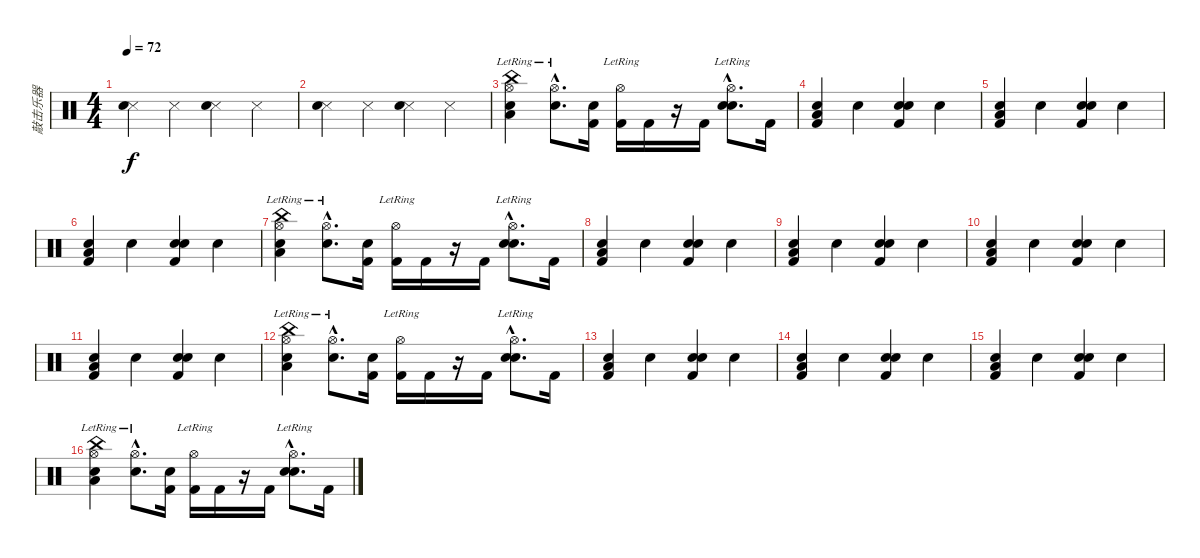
\track ("敲击乐器" "敲击乐器") {instrument percussion}
\staff {score}
\articulation defaults
\ts (4 4)
\tempo 72
\clef neutral
\ks c
("Snare (side stick) 3" "Electric Snare (hit)").4{dy f} "Snare (side stick) 3".4 ("Snare (side stick) 3" "Hand Clap (hit)").4 "Snare (side stick) 3".4 |
("Snare (side stick) 3" "Electric Snare (hit)").4 "Snare (side stick) 3".4 ("Snare (side stick) 3" "Hand Clap (hit)").4 "Snare (side stick) 3".4 |
("China (hit)" "Snare (hit) 2" "Low Floor Tom (hit)" "Hi-Hat (open)"{lr}).4 ("Electric Snare (hit)"{hac} "Hi-Hat (open)"{hac lr}).8{d} ("Kick (hit) 2" "Snare (hit) 2").16 ("Kick (hit) 2" "Hi-Hat (open)"{lr}).16 "Kick (hit) 2".16 r.16 "Kick (hit) 2".16 ("Electric Snare (hit)"{hac} "Hand Clap (hit)"{hac} "Hi-Hat (open)"{hac lr}).8{d} "Kick (hit) 2".16 |
("Snare (hit) 2" "Kick (hit) 2" "Low Floor Tom (hit)").4 "Electric Snare (hit)".4 ("Snare (hit) 2" "Kick (hit) 2" "Hand Clap (hit)").4 "Electric Snare (hit)".4 |
("Snare (hit) 2" "Kick (hit) 2" "Low Floor Tom (hit)").4 "Electric Snare (hit)".4 ("Snare (hit) 2" "Kick (hit) 2" "Hand Clap (hit)").4 "Electric Snare (hit)".4 |
("Snare (hit) 2" "Kick (hit) 2" "Low Floor Tom (hit)").4 "Electric Snare (hit)".4 ("Snare (hit) 2" "Kick (hit) 2" "Hand Clap (hit)").4 "Electric Snare (hit)".4 |
("China (hit)" "Snare (hit) 2" "Low Floor Tom (hit)" "Hi-Hat (open)"{lr}).4 ("Electric Snare (hit)"{hac} "Hi-Hat (open)"{hac lr}).8{d} ("Kick (hit) 2" "Snare (hit) 2").16 ("Kick (hit) 2" "Hi-Hat (open)"{lr}).16 "Kick (hit) 2".16 r.16 "Kick (hit) 2".16 ("Electric Snare (hit)"{hac} "Hand Clap (hit)"{hac} "Hi-Hat (open)"{hac lr}).8{d} "Kick (hit) 2".16 |
("Snare (hit) 2" "Kick (hit) 2" "Low Floor Tom (hit)").4 "Electric Snare (hit)".4 ("Snare (hit) 2" "Kick (hit) 2" "Hand Clap (hit)").4 "Electric Snare (hit)".4 |
("Snare (hit) 2" "Kick (hit) 2" "Low Floor Tom (hit)").4 "Electric Snare (hit)".4 ("Snare (hit) 2" "Kick (hit) 2" "Hand Clap (hit)").4 "Electric Snare (hit)".4 |
("Snare (hit) 2" "Kick (hit) 2" "Low Floor Tom (hit)").4 "Electric Snare (hit)".4 ("Snare (hit) 2" "Kick (hit) 2" "Hand Clap (hit)").4 "Electric Snare (hit)".4 |
("Snare (hit) 2" "Kick (hit) 2" "Low Floor Tom (hit)").4 "Electric Snare (hit)".4 ("Snare (hit) 2" "Kick (hit) 2" "Hand Clap (hit)").4 "Electric Snare (hit)".4 |
("China (hit)" "Snare (hit) 2" "Low Floor Tom (hit)" "Hi-Hat (open)"{lr}).4 ("Electric Snare (hit)"{hac} "Hi-Hat (open)"{hac lr}).8{d} ("Kick (hit) 2" "Snare (hit) 2").16 ("Kick (hit) 2" "Hi-Hat (open)"{lr}).16 "Kick (hit) 2".16 r.16 "Kick (hit) 2".16 ("Electric Snare (hit)"{hac} "Hand Clap (hit)"{hac} "Hi-Hat (open)"{hac lr}).8{d} "Kick (hit) 2".16 |
("Snare (hit) 2" "Kick (hit) 2" "Low Floor Tom (hit)").4 "Electric Snare (hit)".4 ("Snare (hit) 2" "Kick (hit) 2" "Hand Clap (hit)").4 "Electric Snare (hit)".4 |
("Snare (hit) 2" "Kick (hit) 2" "Low Floor Tom (hit)").4 "Electric Snare (hit)".4 ("Snare (hit) 2" "Kick (hit) 2" "Hand Clap (hit)").4 "Electric Snare (hit)".4 |
("Snare (hit) 2" "Kick (hit) 2" "Low Floor Tom (hit)").4 "Electric Snare (hit)".4 ("Snare (hit) 2" "Kick (hit) 2" "Hand Clap (hit)").4 "Electric Snare (hit)".4 |
("China (hit)" "Snare (hit) 2" "Low Floor Tom (hit)" "Hi-Hat (open)"{lr}).4 ("Electric Snare (hit)"{hac} "Hi-Hat (open)"{hac lr}).8{d} ("Kick (hit) 2" "Snare (hit) 2").16 ("Kick (hit) 2" "Hi-Hat (open)"{lr}).16 "Kick (hit) 2".16 r.16 "Kick (hit) 2".16 ("Electric Snare (hit)"{hac} "Hand Clap (hit)"{hac} "Hi-Hat (open)"{hac lr}).8{d} "Kick (hit) 2".16
